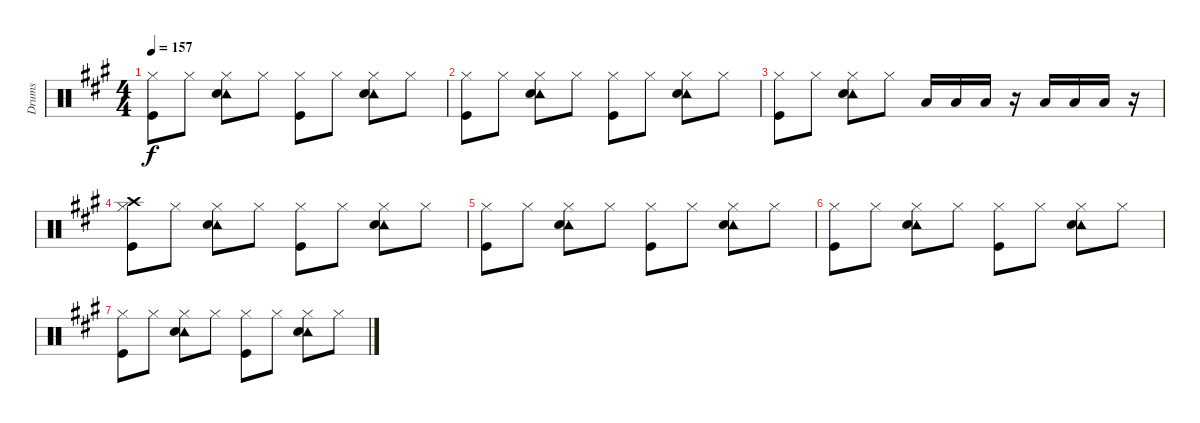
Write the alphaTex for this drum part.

\track ("Drums" "Drums") {instrument percussion}
\staff {score}
\articulation defaults
\ts (4 4)
\tempo 157
\clef neutral
\ks a
("Hi-Hat (closed)" "Kick (hit)").8{dy f volume 10} "Hi-Hat (closed)".8 ("Hi-Hat (closed)" "Tambourine (hit)" "Electric Snare (hit)").8 "Hi-Hat (closed)".8 ("Hi-Hat (closed)" "Kick (hit)").8 "Hi-Hat (closed)".8 ("Hi-Hat (closed)" "Tambourine (hit)" "Electric Snare (hit)").8 "Hi-Hat (closed)".8 |
("Hi-Hat (closed)" "Kick (hit)").8{volume 8} "Hi-Hat (closed)".8 ("Hi-Hat (closed)" "Tambourine (hit)" "Electric Snare (hit)").8 "Hi-Hat (closed)".8 ("Hi-Hat (closed)" "Kick (hit)").8 "Hi-Hat (closed)".8 ("Hi-Hat (closed)" "Tambourine (hit)" "Electric Snare (hit)").8 "Hi-Hat (closed)".8 |
("Hi-Hat (closed)" "Kick (hit)").8 "Hi-Hat (closed)".8 ("Hi-Hat (closed)" "Tambourine (hit)" "Electric Snare (hit)").8 "Hi-Hat (closed)".8 "Low Tom (hit)".16 "Low Tom (hit)".16 "Low Tom (hit)".16 r.16 "Low Floor Tom (hit)".16 "Low Floor Tom (hit)".16 "Low Floor Tom (hit)".16 r.16 |
("Hi-Hat (closed)" "Crash high (hit)" "Kick (hit)").8{volume 7} "Hi-Hat (closed)".8 ("Hi-Hat (closed)" "Tambourine (hit)" "Electric Snare (hit)").8 "Hi-Hat (closed)".8 ("Hi-Hat (closed)" "Kick (hit)").8 "Hi-Hat (closed)".8 ("Hi-Hat (closed)" "Tambourine (hit)" "Electric Snare (hit)").8 "Hi-Hat (closed)".8 |
("Hi-Hat (closed)" "Kick (hit)").8{volume 5} "Hi-Hat (closed)".8 ("Hi-Hat (closed)" "Tambourine (hit)" "Electric Snare (hit)").8 "Hi-Hat (closed)".8 ("Hi-Hat (closed)" "Kick (hit)").8 "Hi-Hat (closed)".8 ("Hi-Hat (closed)" "Tambourine (hit)" "Electric Snare (hit)").8 "Hi-Hat (closed)".8 |
("Hi-Hat (closed)" "Kick (hit)").8 "Hi-Hat (closed)".8 ("Hi-Hat (closed)" "Tambourine (hit)" "Electric Snare (hit)").8 "Hi-Hat (closed)".8 ("Hi-Hat (closed)" "Kick (hit)").8 "Hi-Hat (closed)".8 ("Hi-Hat (closed)" "Tambourine (hit)" "Electric Snare (hit)").8 "Hi-Hat (closed)".8 |
("Hi-Hat (closed)" "Kick (hit)").8{volume 3} "Hi-Hat (closed)".8 ("Hi-Hat (closed)" "Tambourine (hit)" "Electric Snare (hit)").8 "Hi-Hat (closed)".8 ("Hi-Hat (closed)" "Kick (hit)").8{volume 2} "Hi-Hat (closed)".8 ("Hi-Hat (closed)" "Tambourine (hit)" "Electric Snare (hit)").8 "Hi-Hat (closed)".8
